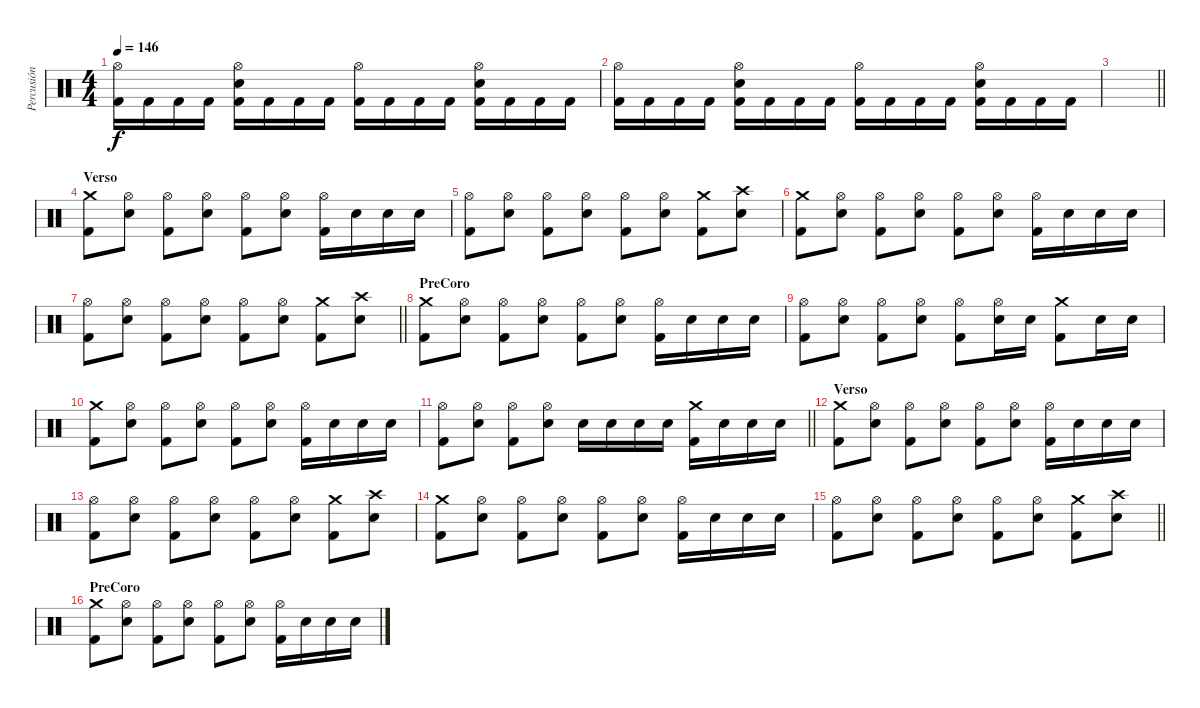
\track ("Percusión" "Percusión") {instrument percussion}
\staff {score}
\articulation defaults
\ts (4 4)
\tempo 146
\clef neutral
\ks c
("Hi-Hat (open)" "Kick (hit) 2").16{dy f} "Kick (hit) 2".16 "Kick (hit) 2".16 "Kick (hit) 2".16 ("Hi-Hat (open)" "Snare (hit) 2" "Kick (hit) 2").16 "Kick (hit) 2".16 "Kick (hit) 2".16 "Kick (hit) 2".16 ("Hi-Hat (open)" "Kick (hit) 2").16 "Kick (hit) 2".16 "Kick (hit) 2".16 "Kick (hit) 2".16 ("Hi-Hat (open)" "Snare (hit) 2" "Kick (hit) 2").16 "Kick (hit) 2".16 "Kick (hit) 2".16 "Kick (hit) 2".16 |
("Hi-Hat (open)" "Kick (hit) 2").16 "Kick (hit) 2".16 "Kick (hit) 2".16 "Kick (hit) 2".16 ("Hi-Hat (open)" "Snare (hit) 2" "Kick (hit) 2").16 "Kick (hit) 2".16 "Kick (hit) 2".16 "Kick (hit) 2".16 ("Hi-Hat (open)" "Kick (hit) 2").16 "Kick (hit) 2".16 "Kick (hit) 2".16 "Kick (hit) 2".16 ("Hi-Hat (open)" "Snare (hit) 2" "Kick (hit) 2").16 "Kick (hit) 2".16 "Kick (hit) 2".16 "Kick (hit) 2".16 |
\barLineRight lightlight
|
\section ("" "Verso")
("Crash medium (hit)" "Kick (hit) 2").8 ("Hi-Hat (open)" "Snare (hit) 2").8 ("Hi-Hat (open)" "Kick (hit) 2").8 ("Hi-Hat (open)" "Snare (hit) 2").8 ("Hi-Hat (open)" "Kick (hit) 2").8 ("Hi-Hat (open)" "Snare (hit) 2").8 ("Hi-Hat (open)" "Kick (hit) 2").16 "Snare (hit) 2".16 "Snare (hit) 2".16 "Snare (hit) 2".16 |
("Hi-Hat (open)" "Kick (hit) 2").8 ("Hi-Hat (open)" "Snare (hit) 2").8 ("Hi-Hat (open)" "Kick (hit) 2").8 ("Hi-Hat (open)" "Snare (hit) 2").8 ("Hi-Hat (open)" "Kick (hit) 2").8 ("Hi-Hat (open)" "Snare (hit) 2").8 ("Crash medium (hit)" "Kick (hit) 2").8 ("Crash high (hit)" "Snare (hit) 2").8 |
("Crash medium (hit)" "Kick (hit) 2").8 ("Hi-Hat (open)" "Snare (hit) 2").8 ("Hi-Hat (open)" "Kick (hit) 2").8 ("Hi-Hat (open)" "Snare (hit) 2").8 ("Hi-Hat (open)" "Kick (hit) 2").8 ("Hi-Hat (open)" "Snare (hit) 2").8 ("Hi-Hat (open)" "Kick (hit) 2").16 "Snare (hit) 2".16 "Snare (hit) 2".16 "Snare (hit) 2".16 |
\barLineRight lightlight
("Hi-Hat (open)" "Kick (hit) 2").8 ("Hi-Hat (open)" "Snare (hit) 2").8 ("Hi-Hat (open)" "Kick (hit) 2").8 ("Hi-Hat (open)" "Snare (hit) 2").8 ("Hi-Hat (open)" "Kick (hit) 2").8 ("Hi-Hat (open)" "Snare (hit) 2").8 ("Crash medium (hit)" "Kick (hit) 2").8 ("Crash high (hit)" "Snare (hit) 2").8 |
\section ("" "PreCoro")
("Crash medium (hit)" "Kick (hit) 2").8 ("Hi-Hat (open)" "Snare (hit) 2").8 ("Hi-Hat (open)" "Kick (hit) 2").8 ("Hi-Hat (open)" "Snare (hit) 2").8 ("Hi-Hat (open)" "Kick (hit) 2").8 ("Hi-Hat (open)" "Snare (hit) 2").8 ("Hi-Hat (open)" "Kick (hit) 2").16 "Snare (hit) 2".16 "Snare (hit) 2".16 "Snare (hit) 2".16 |
("Hi-Hat (open)" "Kick (hit) 2").8 ("Hi-Hat (open)" "Snare (hit) 2").8 ("Hi-Hat (open)" "Kick (hit) 2").8 ("Hi-Hat (open)" "Snare (hit) 2").8 ("Hi-Hat (open)" "Kick (hit) 2").8 ("Hi-Hat (open)" "Snare (hit) 2").16 "Snare (hit) 2".16 ("Crash medium (hit)" "Kick (hit) 2").8 "Snare (hit) 2".16 "Snare (hit) 2".16 |
("Crash medium (hit)" "Kick (hit) 2").8 ("Hi-Hat (open)" "Snare (hit) 2").8 ("Hi-Hat (open)" "Kick (hit) 2").8 ("Hi-Hat (open)" "Snare (hit) 2").8 ("Hi-Hat (open)" "Kick (hit) 2").8 ("Hi-Hat (open)" "Snare (hit) 2").8 ("Hi-Hat (open)" "Kick (hit) 2").16 "Snare (hit) 2".16 "Snare (hit) 2".16 "Snare (hit) 2".16 |
\barLineRight lightlight
("Hi-Hat (open)" "Kick (hit) 2").8 ("Hi-Hat (open)" "Snare (hit) 2").8 ("Hi-Hat (open)" "Kick (hit) 2").8 ("Hi-Hat (open)" "Snare (hit) 2").8 "Snare (hit) 2".16 "Snare (hit) 2".16 "Snare (hit) 2".16 "Snare (hit) 2".16 ("Crash medium (hit)" "Kick (hit) 2").16 "Snare (hit) 2".16 "Snare (hit) 2".16 "Snare (hit) 2".16 |
\section ("" "Verso")
("Crash medium (hit)" "Kick (hit) 2").8 ("Hi-Hat (open)" "Snare (hit) 2").8 ("Hi-Hat (open)" "Kick (hit) 2").8 ("Hi-Hat (open)" "Snare (hit) 2").8 ("Hi-Hat (open)" "Kick (hit) 2").8 ("Hi-Hat (open)" "Snare (hit) 2").8 ("Hi-Hat (open)" "Kick (hit) 2").16 "Snare (hit) 2".16 "Snare (hit) 2".16 "Snare (hit) 2".16 |
("Hi-Hat (open)" "Kick (hit) 2").8 ("Hi-Hat (open)" "Snare (hit) 2").8 ("Hi-Hat (open)" "Kick (hit) 2").8 ("Hi-Hat (open)" "Snare (hit) 2").8 ("Hi-Hat (open)" "Kick (hit) 2").8 ("Hi-Hat (open)" "Snare (hit) 2").8 ("Crash medium (hit)" "Kick (hit) 2").8 ("Crash high (hit)" "Snare (hit) 2").8 |
("Crash medium (hit)" "Kick (hit) 2").8 ("Hi-Hat (open)" "Snare (hit) 2").8 ("Hi-Hat (open)" "Kick (hit) 2").8 ("Hi-Hat (open)" "Snare (hit) 2").8 ("Hi-Hat (open)" "Kick (hit) 2").8 ("Hi-Hat (open)" "Snare (hit) 2").8 ("Hi-Hat (open)" "Kick (hit) 2").16 "Snare (hit) 2".16 "Snare (hit) 2".16 "Snare (hit) 2".16 |
\barLineRight lightlight
("Hi-Hat (open)" "Kick (hit) 2").8 ("Hi-Hat (open)" "Snare (hit) 2").8 ("Hi-Hat (open)" "Kick (hit) 2").8 ("Hi-Hat (open)" "Snare (hit) 2").8 ("Hi-Hat (open)" "Kick (hit) 2").8 ("Hi-Hat (open)" "Snare (hit) 2").8 ("Crash medium (hit)" "Kick (hit) 2").8 ("Crash high (hit)" "Snare (hit) 2").8 |
\section ("" "PreCoro")
("Crash medium (hit)" "Kick (hit) 2").8 ("Hi-Hat (open)" "Snare (hit) 2").8 ("Hi-Hat (open)" "Kick (hit) 2").8 ("Hi-Hat (open)" "Snare (hit) 2").8 ("Hi-Hat (open)" "Kick (hit) 2").8 ("Hi-Hat (open)" "Snare (hit) 2").8 ("Hi-Hat (open)" "Kick (hit) 2").16 "Snare (hit) 2".16 "Snare (hit) 2".16 "Snare (hit) 2".16
